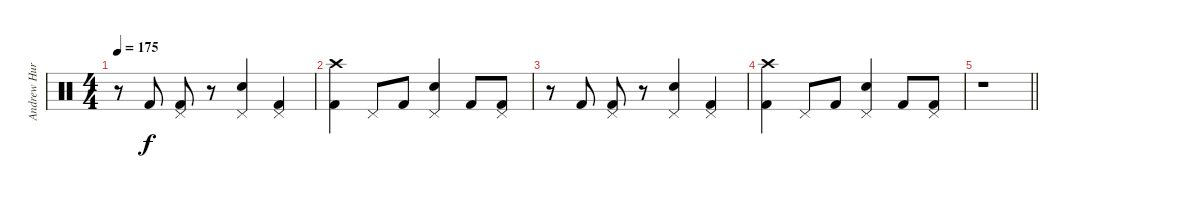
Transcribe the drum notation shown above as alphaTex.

\track ("Andrew Hurley (Drums)" "Andrew Hur") {instrument percussion}
\staff {score}
\articulation defaults
\ts (4 4)
\tempo 175
\clef neutral
\ks c
r.8{dy f} "Kick (hit) 2".8 ("Pedal Hi-Hat (hit)" "Kick (hit) 2").8 r.8 ("Pedal Hi-Hat (hit)" "Snare (hit) 2").4 ("Pedal Hi-Hat (hit)" "Kick (hit) 2").4 |
("Crash high (hit)" "Kick (hit) 2").4 "Pedal Hi-Hat (hit)".8 "Kick (hit) 2".8 ("Pedal Hi-Hat (hit)" "Snare (hit) 2").4 "Kick (hit) 2".8 ("Pedal Hi-Hat (hit)" "Kick (hit) 2").8 |
r.8 "Kick (hit) 2".8 ("Pedal Hi-Hat (hit)" "Kick (hit) 2").8 r.8 ("Pedal Hi-Hat (hit)" "Snare (hit) 2").4 ("Pedal Hi-Hat (hit)" "Kick (hit) 2").4 |
("Crash high (hit)" "Kick (hit) 2").4 "Pedal Hi-Hat (hit)".8 "Kick (hit) 2".8 ("Pedal Hi-Hat (hit)" "Snare (hit) 2").4 "Kick (hit) 2".8 ("Pedal Hi-Hat (hit)" "Kick (hit) 2").8 |
\barLineRight lightlight
r.1
